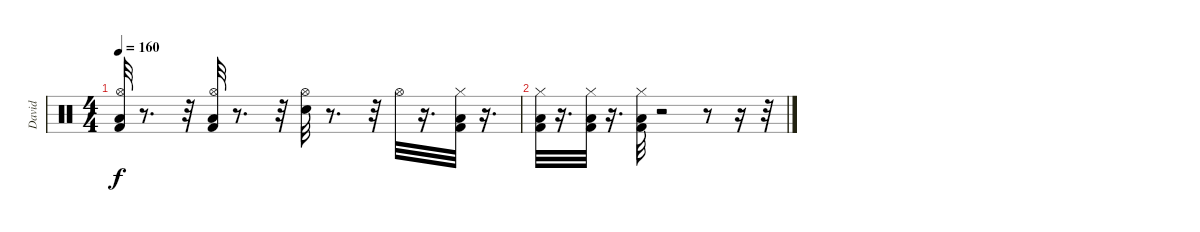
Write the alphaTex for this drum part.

\track ("David" "David") {instrument percussion}
\staff {score}
\articulation defaults
\ts (4 4)
\tempo 160
\clef neutral
\ks c
("Kick (hit) 2" "Hi-Hat (open)" "Low Floor Tom (hit)").32{dy f} r.8{d} r.32 ("Kick (hit) 2" "Hi-Hat (open)" "Low Floor Tom (hit)").32 r.8{d} r.32 ("Hi-Hat (open)" "Electric Snare (hit)").32 r.8{d} r.32 "Hi-Hat (open)".32 r.16{d} ("Kick (hit) 2" "Low Floor Tom (hit)" "Hi-Hat (closed)").32 r.16{d} |
("Kick (hit) 2" "Low Floor Tom (hit)" "Hi-Hat (closed)").32 r.16{d} ("Kick (hit) 2" "Low Floor Tom (hit)" "Hi-Hat (closed)").32 r.16{d} ("Kick (hit) 2" "Low Floor Tom (hit)" "Hi-Hat (closed)").32 r.2 r.8 r.16 r.32
